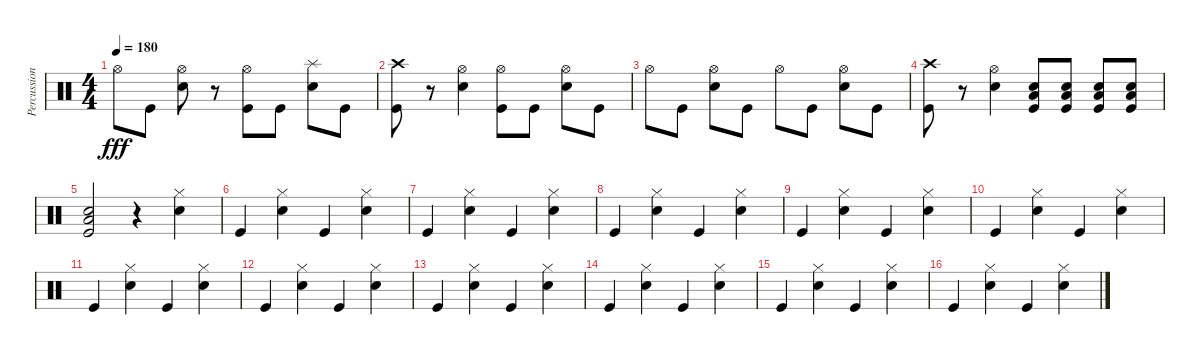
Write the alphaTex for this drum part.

\track ("Percussion" "Percussion") {instrument percussion}
\staff {score}
\articulation defaults
\ts (4 4)
\tempo 180
\clef neutral
\ks c "Hi-Hat (open)".8{dy fff} "Kick (hit)".8
("Hi-Hat (open)" "Snare (hit) 2").8 r.8 ("Hi-Hat (open)" "Kick (hit)").8 "Kick (hit)".8 ("Splash (hit)" "Snare (hit) 2").8 "Kick (hit)".8 |
("Crash high (hit)" "Kick (hit)").8 r.8 ("Hi-Hat (open)" "Snare (hit) 2").4 ("Hi-Hat (open)" "Kick (hit)").8 "Kick (hit)".8 ("Hi-Hat (open)" "Snare (hit) 2").8 "Kick (hit)".8 |
"Hi-Hat (open)".8 "Kick (hit)".8 ("Hi-Hat (open)" "Snare (hit) 2").8 "Kick (hit)".8 "Hi-Hat (open)".8 "Kick (hit)".8 ("Hi-Hat (open)" "Snare (hit) 2").8 "Kick (hit)".8 |
("Crash high (hit)" "Kick (hit)").8 r.8 ("Hi-Hat (open)" "Snare (hit) 2").4 ("Low Tom (hit)" "Snare (hit) 2" "Kick (hit)").8 ("Low Tom (hit)" "Snare (hit) 2" "Kick (hit)").8 ("Low Tom (hit)" "Snare (hit) 2" "Kick (hit)").8 ("Low Tom (hit)" "Snare (hit) 2" "Kick (hit)").8 |
("Low Tom (hit)" "Snare (hit) 2" "Kick (hit)").2 r.4 ("Hi-Hat (closed)" "Snare (hit) 2").4 |
"Kick (hit)".4 ("Hi-Hat (closed)" "Snare (hit) 2").4 "Kick (hit)".4 ("Hi-Hat (closed)" "Snare (hit) 2").4 |
"Kick (hit)".4 ("Hi-Hat (closed)" "Snare (hit) 2").4 "Kick (hit)".4 ("Hi-Hat (closed)" "Snare (hit) 2").4 |
"Kick (hit)".4 ("Hi-Hat (closed)" "Snare (hit) 2").4 "Kick (hit)".4 ("Hi-Hat (closed)" "Snare (hit) 2").4 |
"Kick (hit)".4 ("Hi-Hat (closed)" "Snare (hit) 2").4 "Kick (hit)".4 ("Hi-Hat (closed)" "Snare (hit) 2").4 |
"Kick (hit)".4 ("Hi-Hat (closed)" "Snare (hit) 2").4 "Kick (hit)".4 ("Hi-Hat (closed)" "Snare (hit) 2").4 |
"Kick (hit)".4 ("Hi-Hat (closed)" "Snare (hit) 2").4 "Kick (hit)".4 ("Hi-Hat (closed)" "Snare (hit) 2").4 |
"Kick (hit)".4 ("Hi-Hat (closed)" "Snare (hit) 2").4 "Kick (hit)".4 ("Hi-Hat (closed)" "Snare (hit) 2").4 |
"Kick (hit)".4 ("Hi-Hat (closed)" "Snare (hit) 2").4 "Kick (hit)".4 ("Hi-Hat (closed)" "Snare (hit) 2").4 |
"Kick (hit)".4 ("Hi-Hat (closed)" "Snare (hit) 2").4 "Kick (hit)".4 ("Hi-Hat (closed)" "Snare (hit) 2").4 |
"Kick (hit)".4 ("Hi-Hat (closed)" "Snare (hit) 2").4 "Kick (hit)".4 ("Hi-Hat (closed)" "Snare (hit) 2").4 |
"Kick (hit)".4 ("Hi-Hat (closed)" "Snare (hit) 2").4 "Kick (hit)".4 ("Hi-Hat (closed)" "Snare (hit) 2").4
